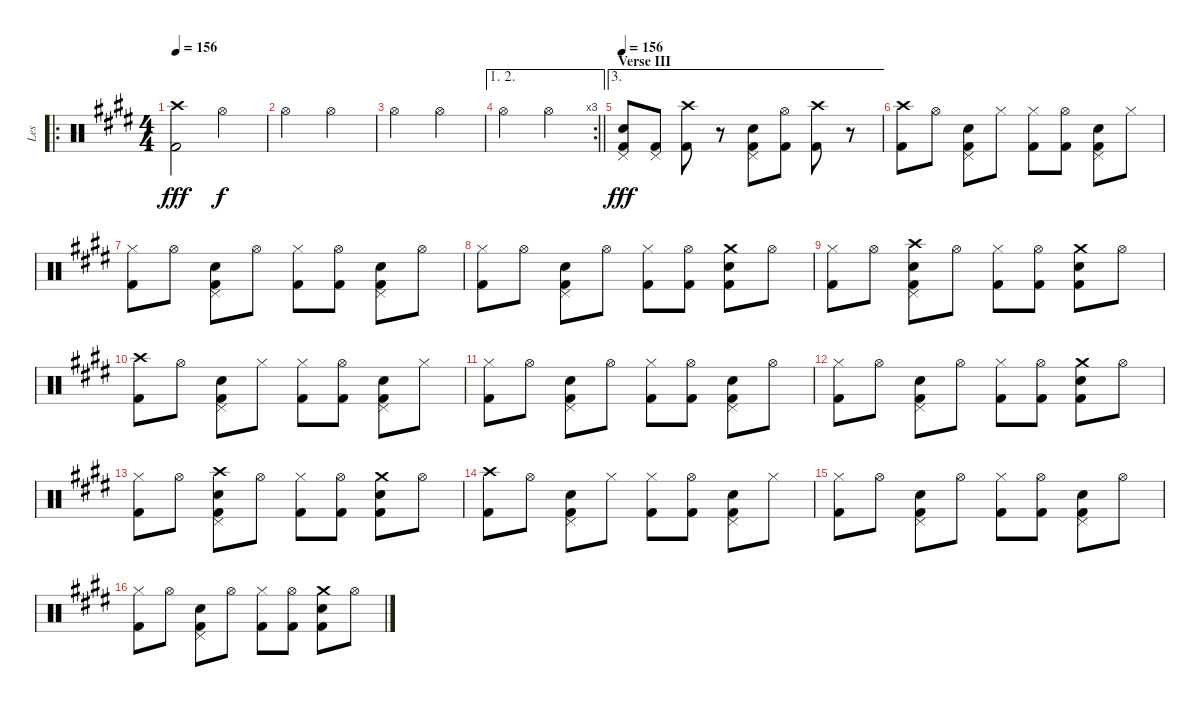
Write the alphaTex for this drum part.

\track ("Les" "Les") {instrument percussion}
\staff {score}
\articulation defaults
\ro
\ts (4 4)
\tempo 156
\clef neutral
\ks e
("Crash high (hit)" "Kick (hit) 2").2{dy fff} "Hi-Hat (open)".2{dy f} |
"Hi-Hat (open)".2 "Hi-Hat (open)".2 |
"Hi-Hat (open)".2 "Hi-Hat (open)".2 |
\ae (1 2)
\rc 3
\barLineRight lightlight "Hi-Hat (open)".2 "Hi-Hat (open)".2
|
\ae 3
\section ("" "Verse III")
\tempo 156
("Pedal Hi-Hat (hit)" "Snare (hit) 2" "Kick (hit) 2").8{dy fff} ("Pedal Hi-Hat (hit)" "Kick (hit) 2").8 ("Crash high (hit)" "Kick (hit) 2").8 r.8 ("Pedal Hi-Hat (hit)" "Snare (hit) 2" "Kick (hit) 2").8 ("Hi-Hat (open)" "Kick (hit) 2").8 ("Crash high (hit)" "Kick (hit) 2").8 r.8 |
("Crash high (hit)" "Kick (hit) 2").8 "Hi-Hat (open)".8 ("Pedal Hi-Hat (hit)" "Snare (hit) 2" "Kick (hit) 2").8 "Hi-Hat (closed)".8 ("Hi-Hat (closed)" "Kick (hit) 2").8 ("Hi-Hat (open)" "Kick (hit) 2").8 ("Pedal Hi-Hat (hit)" "Snare (hit) 2" "Kick (hit) 2").8 "Hi-Hat (closed)".8 |
("Hi-Hat (closed)" "Kick (hit) 2").8 "Hi-Hat (open)".8 ("Pedal Hi-Hat (hit)" "Snare (hit) 2" "Kick (hit) 2").8 "Hi-Hat (open)".8 ("Hi-Hat (closed)" "Kick (hit) 2").8 ("Hi-Hat (open)" "Kick (hit) 2").8 ("Pedal Hi-Hat (hit)" "Snare (hit) 2" "Kick (hit) 2").8 "Hi-Hat (open)".8 |
("Hi-Hat (closed)" "Kick (hit) 2").8 "Hi-Hat (open)".8 ("Pedal Hi-Hat (hit)" "Snare (hit) 2" "Kick (hit) 2").8 "Hi-Hat (open)".8 ("Hi-Hat (closed)" "Kick (hit) 2").8 ("Hi-Hat (open)" "Kick (hit) 2").8 ("Crash medium (hit)" "Snare (hit) 2" "Kick (hit) 2").8 "Hi-Hat (open)".8 |
("Hi-Hat (closed)" "Kick (hit) 2").8 "Hi-Hat (open)".8 ("Crash high (hit)" "Pedal Hi-Hat (hit)" "Snare (hit) 2" "Kick (hit) 2").8 "Hi-Hat (open)".8 ("Hi-Hat (closed)" "Kick (hit) 2").8 ("Hi-Hat (open)" "Kick (hit) 2").8 ("Crash medium (hit)" "Snare (hit) 2" "Kick (hit) 2").8 "Hi-Hat (open)".8 |
("Crash high (hit)" "Kick (hit) 2").8 "Hi-Hat (open)".8 ("Pedal Hi-Hat (hit)" "Snare (hit) 2" "Kick (hit) 2").8 "Hi-Hat (closed)".8 ("Hi-Hat (closed)" "Kick (hit) 2").8 ("Hi-Hat (open)" "Kick (hit) 2").8 ("Pedal Hi-Hat (hit)" "Snare (hit) 2" "Kick (hit) 2").8 "Hi-Hat (closed)".8 |
("Hi-Hat (closed)" "Kick (hit) 2").8 "Hi-Hat (open)".8 ("Pedal Hi-Hat (hit)" "Snare (hit) 2" "Kick (hit) 2").8 "Hi-Hat (open)".8 ("Hi-Hat (closed)" "Kick (hit) 2").8 ("Hi-Hat (open)" "Kick (hit) 2").8 ("Pedal Hi-Hat (hit)" "Snare (hit) 2" "Kick (hit) 2").8 "Hi-Hat (open)".8 |
("Hi-Hat (closed)" "Kick (hit) 2").8 "Hi-Hat (open)".8 ("Pedal Hi-Hat (hit)" "Snare (hit) 2" "Kick (hit) 2").8 "Hi-Hat (open)".8 ("Hi-Hat (closed)" "Kick (hit) 2").8 ("Hi-Hat (open)" "Kick (hit) 2").8 ("Crash medium (hit)" "Snare (hit) 2" "Kick (hit) 2").8 "Hi-Hat (open)".8 |
("Hi-Hat (closed)" "Kick (hit) 2").8 "Hi-Hat (open)".8 ("Crash high (hit)" "Pedal Hi-Hat (hit)" "Snare (hit) 2" "Kick (hit) 2").8 "Hi-Hat (open)".8 ("Hi-Hat (closed)" "Kick (hit) 2").8 ("Hi-Hat (open)" "Kick (hit) 2").8 ("Crash medium (hit)" "Snare (hit) 2" "Kick (hit) 2").8 "Hi-Hat (open)".8 |
("Crash high (hit)" "Kick (hit) 2").8 "Hi-Hat (open)".8 ("Pedal Hi-Hat (hit)" "Snare (hit) 2" "Kick (hit) 2").8 "Hi-Hat (closed)".8 ("Hi-Hat (closed)" "Kick (hit) 2").8 ("Hi-Hat (open)" "Kick (hit) 2").8 ("Pedal Hi-Hat (hit)" "Snare (hit) 2" "Kick (hit) 2").8 "Hi-Hat (closed)".8 |
("Hi-Hat (closed)" "Kick (hit) 2").8 "Hi-Hat (open)".8 ("Pedal Hi-Hat (hit)" "Snare (hit) 2" "Kick (hit) 2").8 "Hi-Hat (open)".8 ("Hi-Hat (closed)" "Kick (hit) 2").8 ("Hi-Hat (open)" "Kick (hit) 2").8 ("Pedal Hi-Hat (hit)" "Snare (hit) 2" "Kick (hit) 2").8 "Hi-Hat (open)".8 |
("Hi-Hat (closed)" "Kick (hit) 2").8 "Hi-Hat (open)".8 ("Pedal Hi-Hat (hit)" "Snare (hit) 2" "Kick (hit) 2").8 "Hi-Hat (open)".8 ("Hi-Hat (closed)" "Kick (hit) 2").8 ("Hi-Hat (open)" "Kick (hit) 2").8 ("Crash medium (hit)" "Snare (hit) 2" "Kick (hit) 2").8 "Hi-Hat (open)".8
